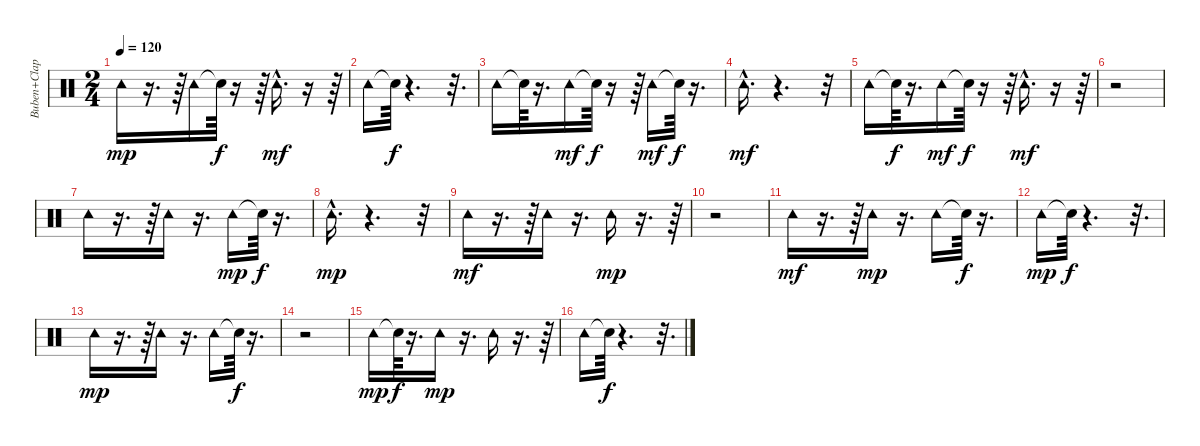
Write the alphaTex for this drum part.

\track ("Buben+Clap" "Buben+Clap") {instrument percussion}
\staff {score}
\articulation defaults
\ts (2 4)
\tempo 120
\clef neutral
\ks c "Tambourine (hit)".16{dy mp}
r.16{d} r.64 "Tambourine (hit)".16 "Snare (hit)"{t}.64{dy f} r.16 r.64 "Tambourine (hit)"{hac}.16{d dy mf} r.16 r.64 |
"Tambourine (hit)".16 "Snare (hit)"{t}.64{dy f} r.4{d} r.32{d} |
"Tambourine (hit)".16 "Snare (hit)"{t}.64 r.16{d} "Tambourine (hit)".16{dy mf} "Snare (hit)"{t}.64{dy f} r.16 r.64 "Tambourine (hit)".16{dy mf} "Snare (hit)"{t}.64{dy f} r.16{d} |
"Tambourine (hit)"{hac}.16{d dy mf} r.4{d} r.32 |
"Tambourine (hit)".16 "Snare (hit)"{t}.64{dy f} r.16{d} "Tambourine (hit)".16{dy mf} "Snare (hit)"{t}.64{dy f} r.16 r.64 "Tambourine (hit)"{hac}.16{d dy mf} r.16 r.64 |
r.2 |
"Tambourine (hit)".16 r.16{d} r.64 "Tambourine (hit)".16 r.16{d} "Tambourine (hit)".16{dy mp} "Snare (hit)"{t}.64{dy f} r.16{d} |
"Tambourine (hit)"{hac}.16{d dy mp} r.4{d} r.32 |
"Tambourine (hit)".16{dy mf} r.16{d} r.64 "Tambourine (hit)".16 r.16{d} "Tambourine (hit)".16{dy mp} r.16{d} r.64 |
r.2 |
"Tambourine (hit)".16{dy mf} r.16{d} r.64 "Tambourine (hit)".16{dy mp} r.16{d} "Tambourine (hit)".16 "Snare (hit)"{t}.64{dy f} r.16{d} |
"Tambourine (hit)".16{dy mp} "Snare (hit)"{t}.64{dy f} r.4{d} r.32{d} |
"Tambourine (hit)".16{dy mp} r.16{d} r.64 "Tambourine (hit)".16 r.16{d} "Tambourine (hit)".16 "Snare (hit)"{t}.64{dy f} r.16{d} |
r.2 |
"Tambourine (hit)".16{dy mp} "Snare (hit)"{t}.64{dy f} r.16{d} "Tambourine (hit)".16{dy mp} r.16{d} "Tambourine (hit)".16 r.16{d} r.64 |
"Tambourine (hit)".16 "Snare (hit)"{t}.64{dy f} r.4{d} r.32{d}
